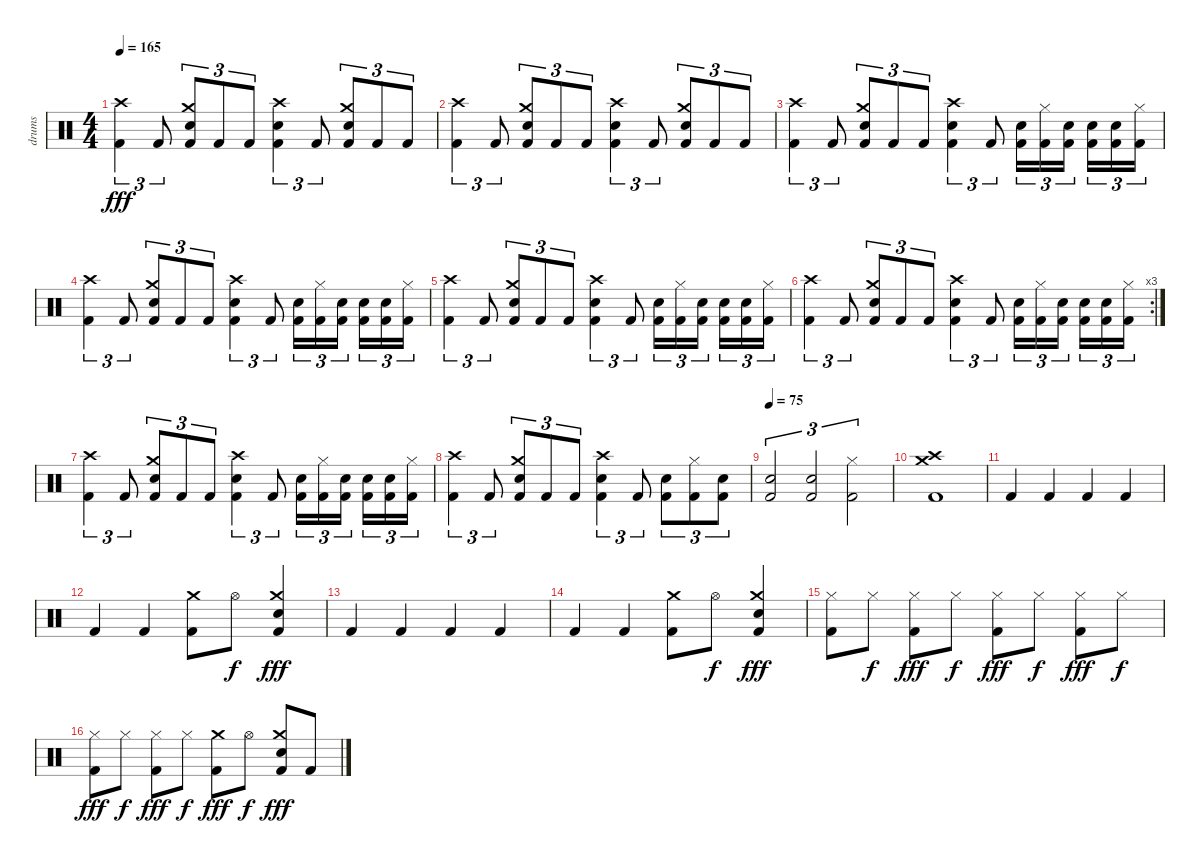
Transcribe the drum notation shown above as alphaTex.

\track ("drums" "drums") {instrument percussion}
\staff {score}
\articulation defaults
\ts (4 4)
\tempo 165
\clef neutral
\ks c
("Crash high (hit)" "Kick (hit) 2").4{tu (3 2) dy fff} "Kick (hit) 2".8{tu (3 2)} ("Crash medium (hit)" "Electric Snare (hit)" "Kick (hit) 2").8{tu (3 2)} "Kick (hit) 2".8{tu (3 2)} "Kick (hit) 2".8{tu (3 2)} ("Crash high (hit)" "Electric Snare (hit)" "Kick (hit) 2").4{tu (3 2)} "Kick (hit) 2".8{tu (3 2)} ("Crash medium (hit)" "Electric Snare (hit)" "Kick (hit) 2").8{tu (3 2)} "Kick (hit) 2".8{tu (3 2)} "Kick (hit) 2".8{tu (3 2)} |
("Crash high (hit)" "Kick (hit) 2").4{tu (3 2)} "Kick (hit) 2".8{tu (3 2)} ("Crash medium (hit)" "Electric Snare (hit)" "Kick (hit) 2").8{tu (3 2)} "Kick (hit) 2".8{tu (3 2)} "Kick (hit) 2".8{tu (3 2)} ("Crash high (hit)" "Electric Snare (hit)" "Kick (hit) 2").4{tu (3 2)} "Kick (hit) 2".8{tu (3 2)} ("Crash medium (hit)" "Electric Snare (hit)" "Kick (hit) 2").8{tu (3 2)} "Kick (hit) 2".8{tu (3 2)} "Kick (hit) 2".8{tu (3 2)} |
("Crash high (hit)" "Kick (hit) 2").4{tu (3 2)} "Kick (hit) 2".8{tu (3 2)} ("Crash medium (hit)" "Electric Snare (hit)" "Kick (hit) 2").8{tu (3 2)} "Kick (hit) 2".8{tu (3 2)} "Kick (hit) 2".8{tu (3 2)} ("Crash high (hit)" "Electric Snare (hit)" "Kick (hit) 2").4{tu (3 2)} "Kick (hit) 2".8{tu (3 2)} ("Electric Snare (hit)" "Kick (hit) 2").16{tu (3 2)} ("Hi-Hat (closed)" "Kick (hit) 2").16{tu (3 2)} ("Electric Snare (hit)" "Kick (hit) 2").16{tu (3 2) beam splitsecondary} ("Electric Snare (hit)" "Kick (hit) 2").16{tu (3 2)} ("Electric Snare (hit)" "Kick (hit) 2").16{tu (3 2)} ("Hi-Hat (closed)" "Kick (hit) 2").16{tu (3 2)} |
("Crash high (hit)" "Kick (hit) 2").4{tu (3 2)} "Kick (hit) 2".8{tu (3 2)} ("Crash medium (hit)" "Electric Snare (hit)" "Kick (hit) 2").8{tu (3 2)} "Kick (hit) 2".8{tu (3 2)} "Kick (hit) 2".8{tu (3 2)} ("Crash high (hit)" "Electric Snare (hit)" "Kick (hit) 2").4{tu (3 2)} "Kick (hit) 2".8{tu (3 2)} ("Electric Snare (hit)" "Kick (hit) 2").16{tu (3 2)} ("Hi-Hat (closed)" "Kick (hit) 2").16{tu (3 2)} ("Electric Snare (hit)" "Kick (hit) 2").16{tu (3 2) beam splitsecondary} ("Electric Snare (hit)" "Kick (hit) 2").16{tu (3 2)} ("Electric Snare (hit)" "Kick (hit) 2").16{tu (3 2)} ("Hi-Hat (closed)" "Kick (hit) 2").16{tu (3 2)} |
("Crash high (hit)" "Kick (hit) 2").4{tu (3 2)} "Kick (hit) 2".8{tu (3 2)} ("Crash medium (hit)" "Electric Snare (hit)" "Kick (hit) 2").8{tu (3 2)} "Kick (hit) 2".8{tu (3 2)} "Kick (hit) 2".8{tu (3 2)} ("Crash high (hit)" "Electric Snare (hit)" "Kick (hit) 2").4{tu (3 2)} "Kick (hit) 2".8{tu (3 2)} ("Electric Snare (hit)" "Kick (hit) 2").16{tu (3 2)} ("Hi-Hat (closed)" "Kick (hit) 2").16{tu (3 2)} ("Electric Snare (hit)" "Kick (hit) 2").16{tu (3 2) beam splitsecondary} ("Electric Snare (hit)" "Kick (hit) 2").16{tu (3 2)} ("Electric Snare (hit)" "Kick (hit) 2").16{tu (3 2)} ("Hi-Hat (closed)" "Kick (hit) 2").16{tu (3 2)} |
\rc 3
("Crash high (hit)" "Kick (hit) 2").4{tu (3 2)} "Kick (hit) 2".8{tu (3 2)} ("Crash medium (hit)" "Electric Snare (hit)" "Kick (hit) 2").8{tu (3 2)} "Kick (hit) 2".8{tu (3 2)} "Kick (hit) 2".8{tu (3 2)} ("Crash high (hit)" "Electric Snare (hit)" "Kick (hit) 2").4{tu (3 2)} "Kick (hit) 2".8{tu (3 2)} ("Electric Snare (hit)" "Kick (hit) 2").16{tu (3 2)} ("Hi-Hat (closed)" "Kick (hit) 2").16{tu (3 2)} ("Electric Snare (hit)" "Kick (hit) 2").16{tu (3 2) beam splitsecondary} ("Electric Snare (hit)" "Kick (hit) 2").16{tu (3 2)} ("Electric Snare (hit)" "Kick (hit) 2").16{tu (3 2)} ("Hi-Hat (closed)" "Kick (hit) 2").16{tu (3 2)} |
("Crash high (hit)" "Kick (hit) 2").4{tu (3 2)} "Kick (hit) 2".8{tu (3 2)} ("Crash medium (hit)" "Electric Snare (hit)" "Kick (hit) 2").8{tu (3 2)} "Kick (hit) 2".8{tu (3 2)} "Kick (hit) 2".8{tu (3 2)} ("Crash high (hit)" "Electric Snare (hit)" "Kick (hit) 2").4{tu (3 2)} "Kick (hit) 2".8{tu (3 2)} ("Electric Snare (hit)" "Kick (hit) 2").16{tu (3 2)} ("Hi-Hat (closed)" "Kick (hit) 2").16{tu (3 2)} ("Electric Snare (hit)" "Kick (hit) 2").16{tu (3 2) beam splitsecondary} ("Electric Snare (hit)" "Kick (hit) 2").16{tu (3 2)} ("Electric Snare (hit)" "Kick (hit) 2").16{tu (3 2)} ("Hi-Hat (closed)" "Kick (hit) 2").16{tu (3 2)} |
("Crash high (hit)" "Kick (hit) 2").4{tu (3 2)} "Kick (hit) 2".8{tu (3 2)} ("Crash medium (hit)" "Electric Snare (hit)" "Kick (hit) 2").8{tu (3 2)} "Kick (hit) 2".8{tu (3 2)} "Kick (hit) 2".8{tu (3 2)} ("Crash high (hit)" "Electric Snare (hit)" "Kick (hit) 2").4{tu (3 2)} "Kick (hit) 2".8{tu (3 2)} ("Electric Snare (hit)" "Kick (hit) 2").8{tu (3 2)} ("Hi-Hat (closed)" "Kick (hit) 2").8{tu (3 2)} ("Electric Snare (hit)" "Kick (hit) 2").8{tu (3 2)} |
\tempo 75
("Electric Snare (hit)" "Kick (hit) 2").2{tu (3 2)} ("Electric Snare (hit)" "Kick (hit) 2").2{tu (3 2)} ("Hi-Hat (closed)" "Kick (hit) 2").2{tu (3 2)} |
("Crash high (hit)" "Crash medium (hit)" "Kick (hit) 2").1 |
"Kick (hit) 2".4 "Kick (hit) 2".4 "Kick (hit) 2".4 "Kick (hit) 2".4 |
"Kick (hit) 2".4 "Kick (hit) 2".4 ("Crash medium (hit)" "Kick (hit) 2").8 "Hi-Hat (open)".8{dy f} ("Crash medium (hit)" "Electric Snare (hit)" "Kick (hit) 2").4{dy fff} |
"Kick (hit) 2".4 "Kick (hit) 2".4 "Kick (hit) 2".4 "Kick (hit) 2".4 |
"Kick (hit) 2".4 "Kick (hit) 2".4 ("Crash medium (hit)" "Kick (hit) 2").8 "Hi-Hat (open)".8{dy f} ("Crash medium (hit)" "Electric Snare (hit)" "Kick (hit) 2").4{dy fff} |
("Hi-Hat (closed)" "Kick (hit) 2").8 "Hi-Hat (closed)".8{dy f} ("Hi-Hat (closed)" "Kick (hit) 2").8{dy fff} "Hi-Hat (closed)".8{dy f} ("Hi-Hat (closed)" "Kick (hit) 2").8{dy fff} "Hi-Hat (closed)".8{dy f} ("Hi-Hat (closed)" "Kick (hit) 2").8{dy fff} "Hi-Hat (closed)".8{dy f} |
("Hi-Hat (closed)" "Kick (hit) 2").8{dy fff} "Hi-Hat (closed)".8{dy f} ("Hi-Hat (closed)" "Kick (hit) 2").8{dy fff} "Hi-Hat (closed)".8{dy f} ("Crash medium (hit)" "Kick (hit) 2").8{dy fff} "Hi-Hat (open)".8{dy f} ("Crash medium (hit)" "Electric Snare (hit)" "Kick (hit) 2").8{dy fff} "Kick (hit) 2".8
